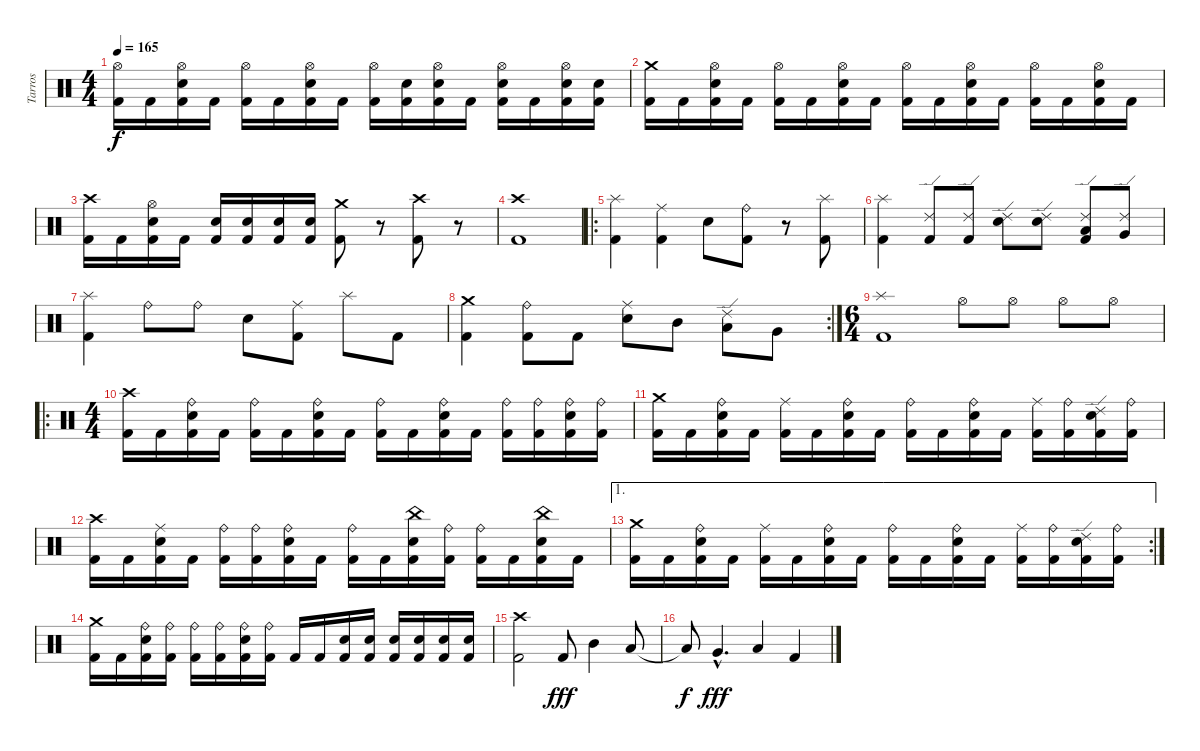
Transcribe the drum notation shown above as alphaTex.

\track ("Tarros" "Tarros") {instrument percussion}
\staff {score}
\articulation defaults
\ts (4 4)
\tempo 165
\clef neutral
\ks c
("Hi-Hat (open)" "Kick (hit) 2").16{dy f} "Kick (hit) 2".16 ("Hi-Hat (open)" "Electric Snare (hit)" "Kick (hit) 2").16 "Kick (hit) 2".16 ("Hi-Hat (open)" "Kick (hit) 2").16 "Kick (hit) 2".16 ("Hi-Hat (open)" "Electric Snare (hit)" "Kick (hit) 2").16 "Kick (hit) 2".16 ("Hi-Hat (open)" "Kick (hit) 2").16 ("Electric Snare (hit)" "Kick (hit) 2").16 ("Hi-Hat (open)" "Electric Snare (hit)" "Kick (hit) 2").16 "Kick (hit) 2".16 ("Hi-Hat (open)" "Electric Snare (hit)" "Kick (hit) 2").16 "Kick (hit) 2".16 ("Hi-Hat (open)" "Electric Snare (hit)" "Kick (hit) 2").16 ("Electric Snare (hit)" "Kick (hit) 2").16 |
("Crash medium (hit)" "Kick (hit) 2").16 "Kick (hit) 2".16 ("Hi-Hat (open)" "Electric Snare (hit)" "Kick (hit) 2").16 "Kick (hit) 2".16 ("Hi-Hat (open)" "Kick (hit) 2").16 "Kick (hit) 2".16 ("Hi-Hat (open)" "Electric Snare (hit)" "Kick (hit) 2").16 "Kick (hit) 2".16 ("Hi-Hat (open)" "Kick (hit) 2").16 "Kick (hit) 2".16 ("Hi-Hat (open)" "Electric Snare (hit)" "Kick (hit) 2").16 "Kick (hit) 2".16 ("Hi-Hat (open)" "Kick (hit) 2").16 "Kick (hit) 2".16 ("Hi-Hat (open)" "Electric Snare (hit)" "Kick (hit) 2").16 "Kick (hit) 2".16 |
("Crash high (hit)" "Kick (hit) 2").16 "Kick (hit) 2".16 ("Hi-Hat (open)" "Electric Snare (hit)" "Kick (hit) 2").16 "Kick (hit) 2".16 ("Electric Snare (hit)" "Kick (hit) 2").16 ("Electric Snare (hit)" "Kick (hit) 2").16 ("Electric Snare (hit)" "Kick (hit) 2").16 ("Electric Snare (hit)" "Kick (hit) 2").16 ("Crash medium (hit)" "Kick (hit) 2").8 r.8{volume 0} ("Crash high (hit)" "Kick (hit) 2").8{volume 14} r.8{volume 0} |
("Crash high (hit)" "Kick (hit) 2").1{volume 14} |
\ro
("Splash (hit)" "Kick (hit) 2").4 ("Ride (middle)" "Kick (hit) 2").4 "Electric Snare (hit)".8 ("Ride (bell)" "Kick (hit) 2").8 r.8 ("Splash (hit)" "Kick (hit) 2").8 |
("Splash (hit)" "Kick (hit) 2").4 ("Ride (edge) 2" "Kick (hit) 2").8 ("Ride (edge) 2" "Kick (hit) 2").8 ("Ride (edge) 2" "Electric Snare (hit)").8 ("Ride (edge) 2" "Electric Snare (hit)").8 ("Ride (edge) 2" "Low Tom (hit)" "Kick (hit) 2").8 ("Ride (edge) 2" "Very Low Tom (hit)").8 |
("Splash (hit)" "Kick (hit) 2").4 "Ride (bell)".8 "Ride (bell)".8 "Electric Snare (hit)".8 ("Ride (middle)" "Kick (hit) 2").8 "Splash (hit)".8 "Kick (hit) 2".8 |
\rc 2
("Crash medium (hit)" "Kick (hit) 2").4 ("Ride (bell)" "Kick (hit) 2").8 "Kick (hit) 2".8 ("Ride (middle)" "Electric Snare (hit)").8 "Mid Tom (hit)".8 ("Ride (edge) 2" "Low Tom (hit)").8 "Very Low Tom (hit)".8 |
\ts (6 4)
("Splash (hit)" "Kick (hit) 2").1 "Hi-Hat (open)".8 "Hi-Hat (open)".8 "Hi-Hat (open)".8 "Hi-Hat (open)".8 |
\ro
\ts (4 4)
("Crash high (hit)" "Kick (hit) 2").16 "Kick (hit) 2".16 ("Ride (bell)" "Electric Snare (hit)" "Kick (hit) 2").16 "Kick (hit) 2".16 ("Ride (bell)" "Kick (hit) 2").16 "Kick (hit) 2".16 ("Ride (bell)" "Electric Snare (hit)" "Kick (hit) 2").16 "Kick (hit) 2".16 ("Ride (bell)" "Kick (hit) 2").16 "Kick (hit) 2".16 ("Ride (bell)" "Electric Snare (hit)" "Kick (hit) 2").16 "Kick (hit) 2".16 ("Ride (bell)" "Kick (hit) 2").16 ("Ride (bell)" "Kick (hit) 2").16 ("Ride (bell)" "Electric Snare (hit)" "Kick (hit) 2").16 ("Ride (bell)" "Kick (hit) 2").16 |
("Crash medium (hit)" "Kick (hit) 2").16 "Kick (hit) 2".16 ("Ride (bell)" "Electric Snare (hit)" "Kick (hit) 2").16 "Kick (hit) 2".16 ("Ride (middle)" "Kick (hit) 2").16 "Kick (hit) 2".16 ("Ride (bell)" "Electric Snare (hit)" "Kick (hit) 2").16 "Kick (hit) 2".16 ("Ride (bell)" "Kick (hit) 2").16 "Kick (hit) 2".16 ("Ride (bell)" "Electric Snare (hit)" "Kick (hit) 2").16 "Kick (hit) 2".16 ("Ride (middle)" "Kick (hit) 2").16 ("Ride (bell)" "Kick (hit) 2").16 ("Ride (edge) 2" "Electric Snare (hit)" "Kick (hit) 2").16 ("Ride (bell)" "Kick (hit) 2").16 |
("Crash high (hit)" "Kick (hit) 2").16 "Kick (hit) 2".16 ("Ride (middle)" "Electric Snare (hit)" "Kick (hit) 2").16 "Kick (hit) 2".16 ("Ride (bell)" "Kick (hit) 2").16 ("Ride (bell)" "Kick (hit) 2").16 ("Ride (bell)" "Electric Snare (hit)" "Kick (hit) 2").16 "Kick (hit) 2".16 ("Ride (bell)" "Kick (hit) 2").16 "Kick (hit) 2".16 ("China (hit)" "Electric Snare (hit)" "Kick (hit) 2").16 ("Ride (bell)" "Kick (hit) 2").16 ("Ride (bell)" "Kick (hit) 2").16 "Kick (hit) 2".16 ("China (hit)" "Electric Snare (hit)" "Kick (hit) 2").16 "Kick (hit) 2".16 |
\ae 1
\rc 2
("Crash medium (hit)" "Kick (hit) 2").16 "Kick (hit) 2".16 ("Ride (bell)" "Electric Snare (hit)" "Kick (hit) 2").16 "Kick (hit) 2".16 ("Ride (middle)" "Kick (hit) 2").16 "Kick (hit) 2".16 ("Ride (bell)" "Electric Snare (hit)" "Kick (hit) 2").16 "Kick (hit) 2".16 ("Ride (bell)" "Kick (hit) 2").16 "Kick (hit) 2".16 ("Ride (bell)" "Electric Snare (hit)" "Kick (hit) 2").16 "Kick (hit) 2".16 ("Ride (middle)" "Kick (hit) 2").16 ("Ride (bell)" "Kick (hit) 2").16 ("Ride (edge) 2" "Electric Snare (hit)" "Kick (hit) 2").16 ("Ride (bell)" "Kick (hit) 2").16 |
("Crash medium (hit)" "Kick (hit) 2").16 "Kick (hit) 2".16 ("Ride (bell)" "Electric Snare (hit)" "Kick (hit) 2").16 ("Ride (bell)" "Kick (hit) 2").16 ("Ride (bell)" "Kick (hit) 2").16 ("Ride (bell)" "Kick (hit) 2").16 ("Ride (bell)" "Electric Snare (hit)" "Kick (hit) 2").16 ("Ride (bell)" "Kick (hit) 2").16 "Kick (hit) 2".16 "Kick (hit) 2".16 ("Electric Snare (hit)" "Kick (hit) 2").16 ("Electric Snare (hit)" "Kick (hit) 2").16 ("Electric Snare (hit)" "Kick (hit) 2").16 ("Electric Snare (hit)" "Kick (hit) 2").16 ("Electric Snare (hit)" "Kick (hit) 2").16 ("Electric Snare (hit)" "Kick (hit) 2").16 |
("Crash high (hit)" "Kick (hit) 2").2{volume 16} "Kick (hit) 2".8{dy fff} "Mid Tom (hit)".4 "Low Tom (hit)".8 |
"Low Tom (hit)"{t}.8{dy f} "Very Low Tom (hit)"{hac}.4{d dy fff} "Low Floor Tom (hit)".4 "Kick (hit) 2".4
